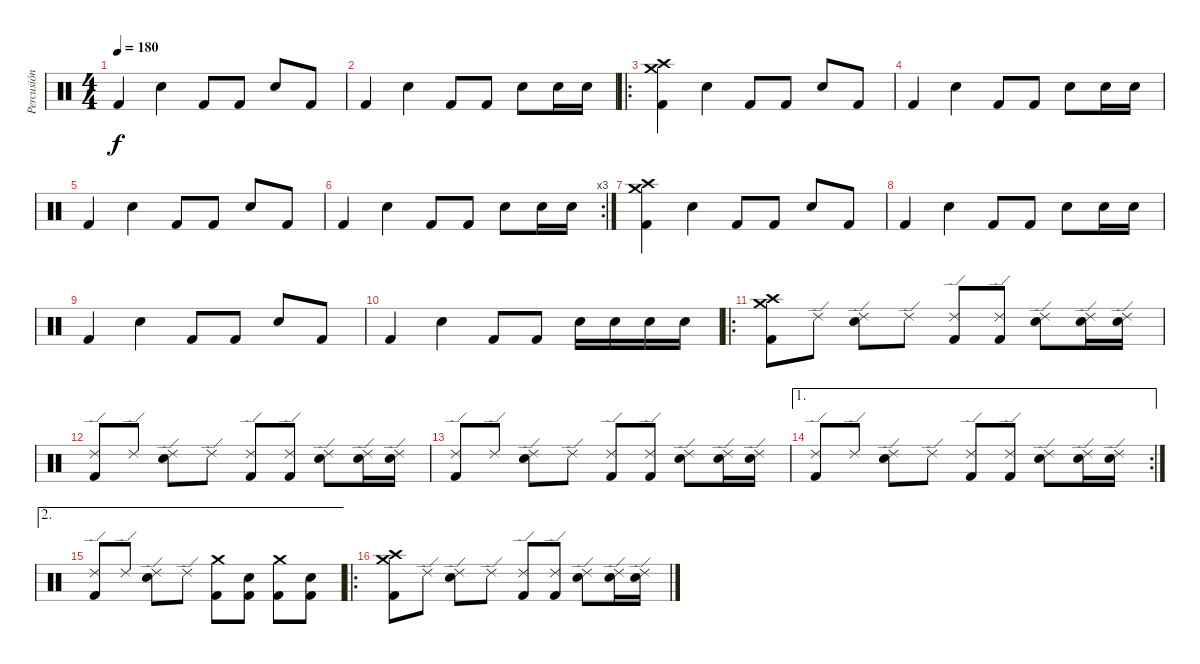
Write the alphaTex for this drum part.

\track ("Percusión" "Percusión") {instrument percussion}
\staff {score}
\articulation defaults
\ts (4 4)
\tempo 180
\clef neutral
\ks c "Kick (hit) 2".4{dy f} "Electric Snare (hit)".4 "Kick (hit) 2".8 "Kick (hit) 2".8 "Electric Snare (hit)".8 "Kick (hit) 2".8
|
"Kick (hit) 2".4 "Electric Snare (hit)".4 "Kick (hit) 2".8 "Kick (hit) 2".8 "Electric Snare (hit)".8 "Snare (hit) 2".16 "Snare (hit) 2".16 |
\ro
("Crash medium (hit)" "Crash high (hit)" "Kick (hit) 2").4 "Electric Snare (hit)".4 "Kick (hit) 2".8 "Kick (hit) 2".8 "Electric Snare (hit)".8 "Kick (hit) 2".8 |
"Kick (hit) 2".4 "Electric Snare (hit)".4 "Kick (hit) 2".8 "Kick (hit) 2".8 "Electric Snare (hit)".8 "Snare (hit) 2".16 "Snare (hit) 2".16 |
"Kick (hit) 2".4 "Electric Snare (hit)".4 "Kick (hit) 2".8 "Kick (hit) 2".8 "Electric Snare (hit)".8 "Kick (hit) 2".8 |
\rc 3 "Kick (hit) 2".4 "Electric Snare (hit)".4 "Kick (hit) 2".8 "Kick (hit) 2".8 "Electric Snare (hit)".8 "Snare (hit) 2".16 "Snare (hit) 2".16
|
("Crash medium (hit)" "Crash high (hit)" "Kick (hit) 2").4 "Electric Snare (hit)".4 "Kick (hit) 2".8 "Kick (hit) 2".8 "Electric Snare (hit)".8 "Kick (hit) 2".8 |
"Kick (hit) 2".4 "Electric Snare (hit)".4 "Kick (hit) 2".8 "Kick (hit) 2".8 "Electric Snare (hit)".8 "Snare (hit) 2".16 "Snare (hit) 2".16 |
"Kick (hit) 2".4 "Electric Snare (hit)".4 "Kick (hit) 2".8 "Kick (hit) 2".8 "Electric Snare (hit)".8 "Kick (hit) 2".8 |
"Kick (hit) 2".4 "Electric Snare (hit)".4 "Kick (hit) 2".8 "Kick (hit) 2".8 "Snare (hit) 2".16 "Snare (hit) 2".16 "Snare (hit) 2".16 "Snare (hit) 2".16 |
\ro
("Crash medium (hit)" "Crash high (hit)" "Kick (hit) 2").8 "Ride (edge) 2".8 ("Ride (edge) 2" "Snare (hit) 2").8 "Ride (edge) 2".8 ("Ride (edge) 2" "Kick (hit) 2").8 ("Ride (edge) 2" "Kick (hit) 2").8 ("Ride (edge) 2" "Snare (hit) 2").8 ("Ride (edge) 2" "Snare (hit) 2").16 ("Ride (edge) 2" "Snare (hit) 2").16 |
("Ride (edge) 2" "Kick (hit) 2").8 "Ride (edge) 2".8 ("Ride (edge) 2" "Snare (hit) 2").8 "Ride (edge) 2".8 ("Ride (edge) 2" "Kick (hit) 2").8 ("Ride (edge) 2" "Kick (hit) 2").8 ("Ride (edge) 2" "Snare (hit) 2").8 ("Ride (edge) 2" "Snare (hit) 2").16 ("Ride (edge) 2" "Snare (hit) 2").16 |
("Ride (edge) 2" "Kick (hit) 2").8 "Ride (edge) 2".8 ("Ride (edge) 2" "Snare (hit) 2").8 "Ride (edge) 2".8 ("Ride (edge) 2" "Kick (hit) 2").8 ("Ride (edge) 2" "Kick (hit) 2").8 ("Ride (edge) 2" "Snare (hit) 2").8 ("Ride (edge) 2" "Snare (hit) 2").16 ("Ride (edge) 2" "Snare (hit) 2").16 |
\ae 1
\rc 2
("Ride (edge) 2" "Kick (hit) 2").8 "Ride (edge) 2".8 ("Ride (edge) 2" "Snare (hit) 2").8 "Ride (edge) 2".8 ("Ride (edge) 2" "Kick (hit) 2").8 ("Ride (edge) 2" "Kick (hit) 2").8 ("Ride (edge) 2" "Snare (hit) 2").8 ("Ride (edge) 2" "Snare (hit) 2").16 ("Ride (edge) 2" "Snare (hit) 2").16 |
\ae 2
("Ride (edge) 2" "Kick (hit) 2").8 "Ride (edge) 2".8 ("Ride (edge) 2" "Snare (hit) 2").8 "Ride (edge) 2".8 ("Crash medium (hit)" "Kick (hit) 2").8 ("Snare (hit) 2" "Kick (hit) 2").8 ("Crash medium (hit)" "Kick (hit) 2").8 ("Snare (hit) 2" "Kick (hit) 2").8 |
\ro
("Crash medium (hit)" "Crash high (hit)" "Kick (hit) 2").8 "Ride (edge) 2".8 ("Ride (edge) 2" "Snare (hit) 2").8 "Ride (edge) 2".8 ("Ride (edge) 2" "Kick (hit) 2").8 ("Ride (edge) 2" "Kick (hit) 2").8 ("Ride (edge) 2" "Snare (hit) 2").8 ("Ride (edge) 2" "Snare (hit) 2").16 ("Ride (edge) 2" "Snare (hit) 2").16
